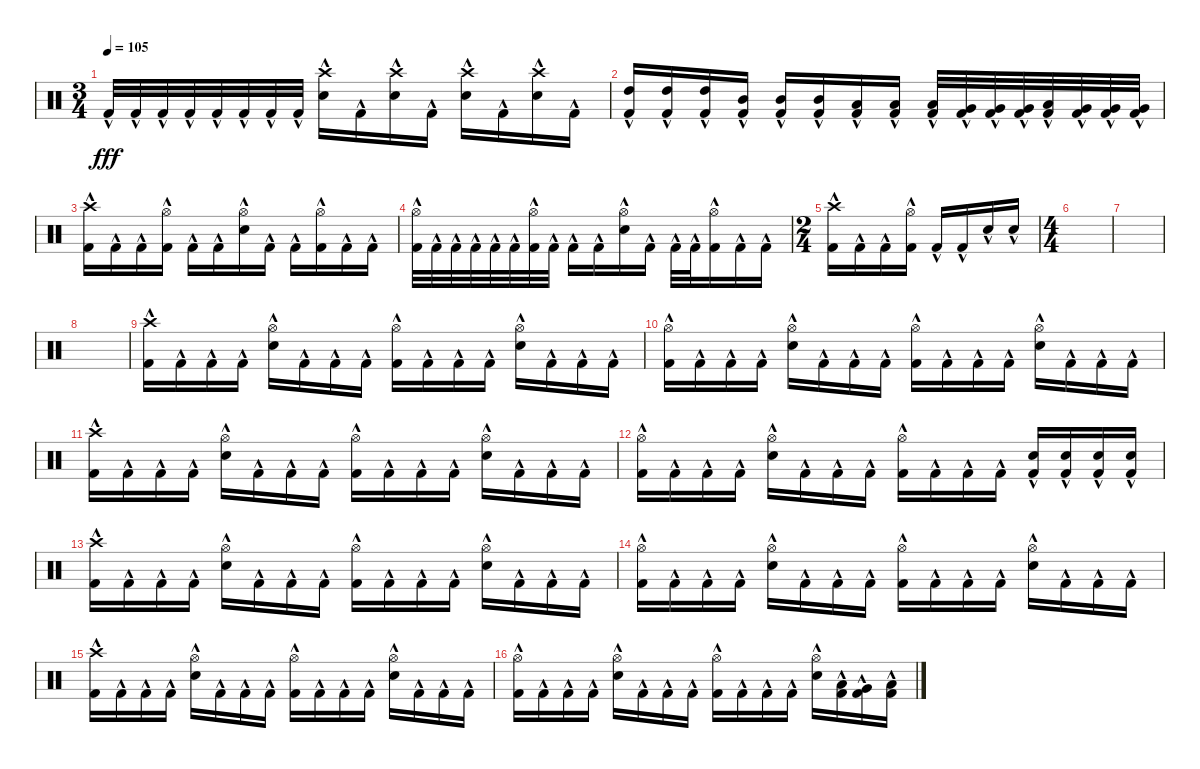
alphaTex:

\track "" {instrument percussion}
\staff {score}
\articulation defaults
\ts (3 4)
\tempo 105
\clef neutral
\ks c "Kick (hit) 2"{hac}.32{dy fff} "Kick (hit) 2"{hac}.32 "Kick (hit) 2"{hac}.32 "Kick (hit) 2"{hac}.32 "Kick (hit) 2"{hac}.32 "Kick (hit) 2"{hac}.32 "Kick (hit) 2"{hac}.32 "Kick (hit) 2"{hac}.32
("Crash high (hit)" "Electric Snare (hit)"{hac}).16 "Kick (hit) 2"{hac}.16 ("Crash high (hit)" "Electric Snare (hit)"{hac}).16 "Kick (hit) 2"{hac}.16 ("Crash high (hit)" "Electric Snare (hit)"{hac}).16 "Kick (hit) 2"{hac}.16 ("Crash high (hit)" "Electric Snare (hit)"{hac}).16 "Kick (hit) 2"{hac}.16 |
("High Tom (hit)" "Kick (hit) 2"{hac}).16 ("High Tom (hit)" "Kick (hit) 2"{hac}).16 ("High Tom (hit)" "Kick (hit) 2"{hac}).16 ("Mid Tom (hit)" "Kick (hit) 2"{hac}).16 ("Mid Tom (hit)" "Kick (hit) 2"{hac}).16 ("Mid Tom (hit)" "Kick (hit) 2"{hac}).16 ("Low Tom (hit)" "Kick (hit) 2"{hac}).16 ("Low Tom (hit)" "Kick (hit) 2"{hac}).16 ("Low Tom (hit)" "Kick (hit) 2"{hac}).32 ("Very Low Tom (hit)" "Kick (hit) 2"{hac}).32 ("Very Low Tom (hit)" "Kick (hit) 2"{hac}).32 ("Very Low Tom (hit)" "Kick (hit) 2"{hac}).32 ("Low Tom (hit)" "Kick (hit) 2"{hac}).32 ("Very Low Tom (hit)" "Kick (hit) 2"{hac}).32 ("Very Low Tom (hit)" "Kick (hit) 2"{hac}).32 ("Very Low Tom (hit)" "Kick (hit) 2"{hac}).32 |
("Crash high (hit)" "Kick (hit) 2"{hac}).16 "Kick (hit) 2"{hac}.16 "Kick (hit) 2"{hac}.16 ("Hi-Hat (open)" "Kick (hit) 2"{hac}).16 "Kick (hit) 2"{hac}.16 "Kick (hit) 2"{hac}.16 ("Hi-Hat (open)" "Electric Snare (hit)"{hac}).16 "Kick (hit) 2"{hac}.16 "Kick (hit) 2"{hac}.16 ("Hi-Hat (open)" "Kick (hit) 2"{hac}).16 "Kick (hit) 2"{hac}.16 "Kick (hit) 2"{hac}.16 |
("Hi-Hat (open)" "Kick (hit) 2"{hac}).32 "Kick (hit) 2"{hac}.32 "Kick (hit) 2"{hac}.32 "Kick (hit) 2"{hac}.32 "Kick (hit) 2"{hac}.32 "Kick (hit) 2"{hac}.32 ("Hi-Hat (open)" "Kick (hit) 2"{hac}).32 "Kick (hit) 2"{hac}.32 "Kick (hit) 2"{hac}.16 "Kick (hit) 2"{hac}.16 ("Hi-Hat (open)" "Electric Snare (hit)"{hac}).16 "Kick (hit) 2"{hac}.16 "Kick (hit) 2"{hac}.32 "Kick (hit) 2"{hac}.32 ("Hi-Hat (open)" "Kick (hit) 2"{hac}).16 "Kick (hit) 2"{hac}.16 "Kick (hit) 2"{hac}.16 |
\ts (2 4)
("Crash high (hit)" "Kick (hit) 2"{hac}).16 "Kick (hit) 2"{hac}.16 "Kick (hit) 2"{hac}.16 ("Hi-Hat (open)" "Kick (hit) 2"{hac}).16 "Kick (hit) 2"{hac}.16 "Kick (hit) 2"{hac}.16 "Electric Snare (hit)"{hac}.16 "Electric Snare (hit)"{hac}.16 |
\ts (4 4)
|
|
|
("Kick (hit) 2"{hac} "Crash high (hit)").16 "Kick (hit) 2"{hac}.16 "Kick (hit) 2"{hac}.16 "Kick (hit) 2"{hac}.16 ("Electric Snare (hit)"{hac} "Hi-Hat (open)").16 "Kick (hit) 2"{hac}.16 "Kick (hit) 2"{hac}.16 "Kick (hit) 2"{hac}.16 ("Kick (hit) 2"{hac} "Hi-Hat (open)").16 "Kick (hit) 2"{hac}.16 "Kick (hit) 2"{hac}.16 "Kick (hit) 2"{hac}.16 ("Electric Snare (hit)"{hac} "Hi-Hat (open)").16 "Kick (hit) 2"{hac}.16 "Kick (hit) 2"{hac}.16 "Kick (hit) 2"{hac}.16 |
("Kick (hit) 2"{hac} "Hi-Hat (open)").16 "Kick (hit) 2"{hac}.16 "Kick (hit) 2"{hac}.16 "Kick (hit) 2"{hac}.16 ("Electric Snare (hit)"{hac} "Hi-Hat (open)").16 "Kick (hit) 2"{hac}.16 "Kick (hit) 2"{hac}.16 "Kick (hit) 2"{hac}.16 ("Kick (hit) 2"{hac} "Hi-Hat (open)").16 "Kick (hit) 2"{hac}.16 "Kick (hit) 2"{hac}.16 "Kick (hit) 2"{hac}.16 ("Electric Snare (hit)"{hac} "Hi-Hat (open)").16 "Kick (hit) 2"{hac}.16 "Kick (hit) 2"{hac}.16 "Kick (hit) 2"{hac}.16 |
("Kick (hit) 2"{hac} "Crash high (hit)").16 "Kick (hit) 2"{hac}.16 "Kick (hit) 2"{hac}.16 "Kick (hit) 2"{hac}.16 ("Electric Snare (hit)"{hac} "Hi-Hat (open)").16 "Kick (hit) 2"{hac}.16 "Kick (hit) 2"{hac}.16 "Kick (hit) 2"{hac}.16 ("Kick (hit) 2"{hac} "Hi-Hat (open)").16 "Kick (hit) 2"{hac}.16 "Kick (hit) 2"{hac}.16 "Kick (hit) 2"{hac}.16 ("Electric Snare (hit)"{hac} "Hi-Hat (open)").16 "Kick (hit) 2"{hac}.16 "Kick (hit) 2"{hac}.16 "Kick (hit) 2"{hac}.16 |
("Kick (hit) 2"{hac} "Hi-Hat (open)").16 "Kick (hit) 2"{hac}.16 "Kick (hit) 2"{hac}.16 "Kick (hit) 2"{hac}.16 ("Electric Snare (hit)"{hac} "Hi-Hat (open)").16 "Kick (hit) 2"{hac}.16 "Kick (hit) 2"{hac}.16 "Kick (hit) 2"{hac}.16 ("Kick (hit) 2"{hac} "Hi-Hat (open)").16 "Kick (hit) 2"{hac}.16 "Kick (hit) 2"{hac}.16 "Kick (hit) 2"{hac}.16 ("Electric Snare (hit)"{hac} "Kick (hit) 2"{hac}).16 ("Electric Snare (hit)"{hac} "Kick (hit) 2"{hac}).16 ("Electric Snare (hit)"{hac} "Kick (hit) 2"{hac}).16 ("Electric Snare (hit)"{hac} "Kick (hit) 2"{hac}).16 |
("Kick (hit) 2"{hac} "Crash high (hit)").16 "Kick (hit) 2"{hac}.16 "Kick (hit) 2"{hac}.16 "Kick (hit) 2"{hac}.16 ("Electric Snare (hit)"{hac} "Hi-Hat (open)").16 "Kick (hit) 2"{hac}.16 "Kick (hit) 2"{hac}.16 "Kick (hit) 2"{hac}.16 ("Kick (hit) 2"{hac} "Hi-Hat (open)").16 "Kick (hit) 2"{hac}.16 "Kick (hit) 2"{hac}.16 "Kick (hit) 2"{hac}.16 ("Electric Snare (hit)"{hac} "Hi-Hat (open)").16 "Kick (hit) 2"{hac}.16 "Kick (hit) 2"{hac}.16 "Kick (hit) 2"{hac}.16 |
("Kick (hit) 2"{hac} "Hi-Hat (open)").16 "Kick (hit) 2"{hac}.16 "Kick (hit) 2"{hac}.16 "Kick (hit) 2"{hac}.16 ("Electric Snare (hit)"{hac} "Hi-Hat (open)").16 "Kick (hit) 2"{hac}.16 "Kick (hit) 2"{hac}.16 "Kick (hit) 2"{hac}.16 ("Kick (hit) 2"{hac} "Hi-Hat (open)").16 "Kick (hit) 2"{hac}.16 "Kick (hit) 2"{hac}.16 "Kick (hit) 2"{hac}.16 ("Electric Snare (hit)"{hac} "Hi-Hat (open)").16 "Kick (hit) 2"{hac}.16 "Kick (hit) 2"{hac}.16 "Kick (hit) 2"{hac}.16 |
("Kick (hit) 2"{hac} "Crash high (hit)").16 "Kick (hit) 2"{hac}.16 "Kick (hit) 2"{hac}.16 "Kick (hit) 2"{hac}.16 ("Electric Snare (hit)"{hac} "Hi-Hat (open)").16 "Kick (hit) 2"{hac}.16 "Kick (hit) 2"{hac}.16 "Kick (hit) 2"{hac}.16 ("Kick (hit) 2"{hac} "Hi-Hat (open)").16 "Kick (hit) 2"{hac}.16 "Kick (hit) 2"{hac}.16 "Kick (hit) 2"{hac}.16 ("Electric Snare (hit)"{hac} "Hi-Hat (open)").16 "Kick (hit) 2"{hac}.16 "Kick (hit) 2"{hac}.16 "Kick (hit) 2"{hac}.16 |
("Kick (hit) 2"{hac} "Hi-Hat (open)").16 "Kick (hit) 2"{hac}.16 "Kick (hit) 2"{hac}.16 "Kick (hit) 2"{hac}.16 ("Electric Snare (hit)"{hac} "Hi-Hat (open)").16 "Kick (hit) 2"{hac}.16 "Kick (hit) 2"{hac}.16 "Kick (hit) 2"{hac}.16 ("Kick (hit) 2"{hac} "Hi-Hat (open)").16 "Kick (hit) 2"{hac}.16 "Kick (hit) 2"{hac}.16 "Kick (hit) 2"{hac}.16 ("Electric Snare (hit)"{hac} "Hi-Hat (open)").16 ("Kick (hit) 2"{hac} "Low Tom (hit)").16 ("Kick (hit) 2"{hac} "Very Low Tom (hit)").16 ("Kick (hit) 2"{hac} "Low Floor Tom (hit)").16
